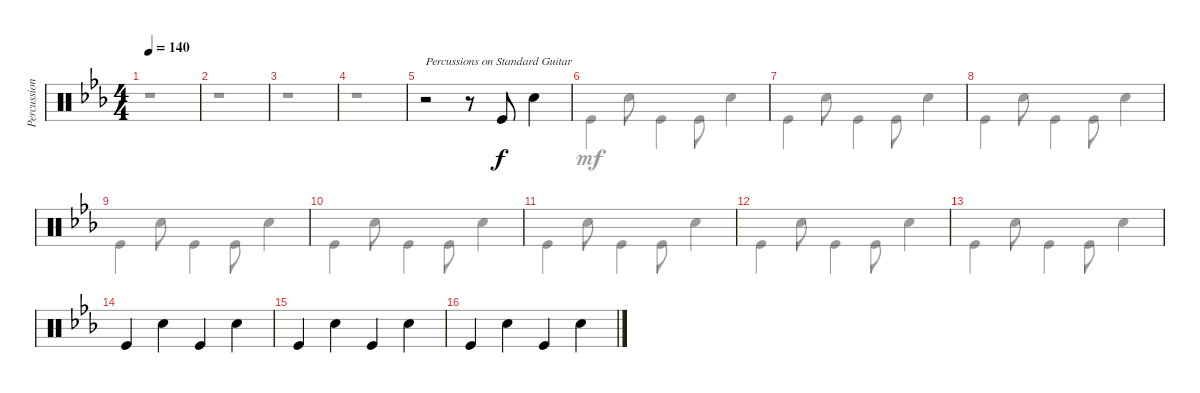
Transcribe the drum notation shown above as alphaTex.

\track ("Percussions" "Percussion") {instrument percussion}
\staff {score}
\articulation defaults
\voice
\ts (4 4)
\tempo 140
\clef neutral
\ks cminor
|
|
|
|
r.2{txt "Percussions on Standard Guitar"} r.8 "Kick (hit)".8 "Snare (hit) 2".4 |
|
|
|
|
|
|
|
|
"Kick (hit)".4 "Snare (hit) 2".4 "Kick (hit)".4 "Snare (hit) 2".4 |
"Kick (hit)".4 "Snare (hit) 2".4 "Kick (hit)".4 "Snare (hit) 2".4 |
"Kick (hit)".4 "Snare (hit) 2".4 "Kick (hit)".4 "Snare (hit) 2".4
\voice
\clef neutral
\ottava regular
\simile none
\ks cminor
r.1{dy mf} |
r.1 |
r.1 |
r.1 |
|
"Kick (hit)".4 "Snare (hit) 2".8 "Kick (hit)".4 "Kick (hit)".8 "Snare (hit) 2".4 |
"Kick (hit)".4 "Snare (hit) 2".8 "Kick (hit)".4 "Kick (hit)".8 "Snare (hit) 2".4 |
"Kick (hit)".4 "Snare (hit) 2".8 "Kick (hit)".4 "Kick (hit)".8 "Snare (hit) 2".4 |
"Kick (hit)".4 "Snare (hit) 2".8 "Kick (hit)".4 "Kick (hit)".8 "Snare (hit) 2".4 |
"Kick (hit)".4 "Snare (hit) 2".8 "Kick (hit)".4 "Kick (hit)".8 "Snare (hit) 2".4 |
"Kick (hit)".4 "Snare (hit) 2".8 "Kick (hit)".4 "Kick (hit)".8 "Snare (hit) 2".4 |
"Kick (hit)".4 "Snare (hit) 2".8 "Kick (hit)".4 "Kick (hit)".8 "Snare (hit) 2".4 |
"Kick (hit)".4 "Snare (hit) 2".8 "Kick (hit)".4 "Kick (hit)".8 "Snare (hit) 2".4 |
|
|
